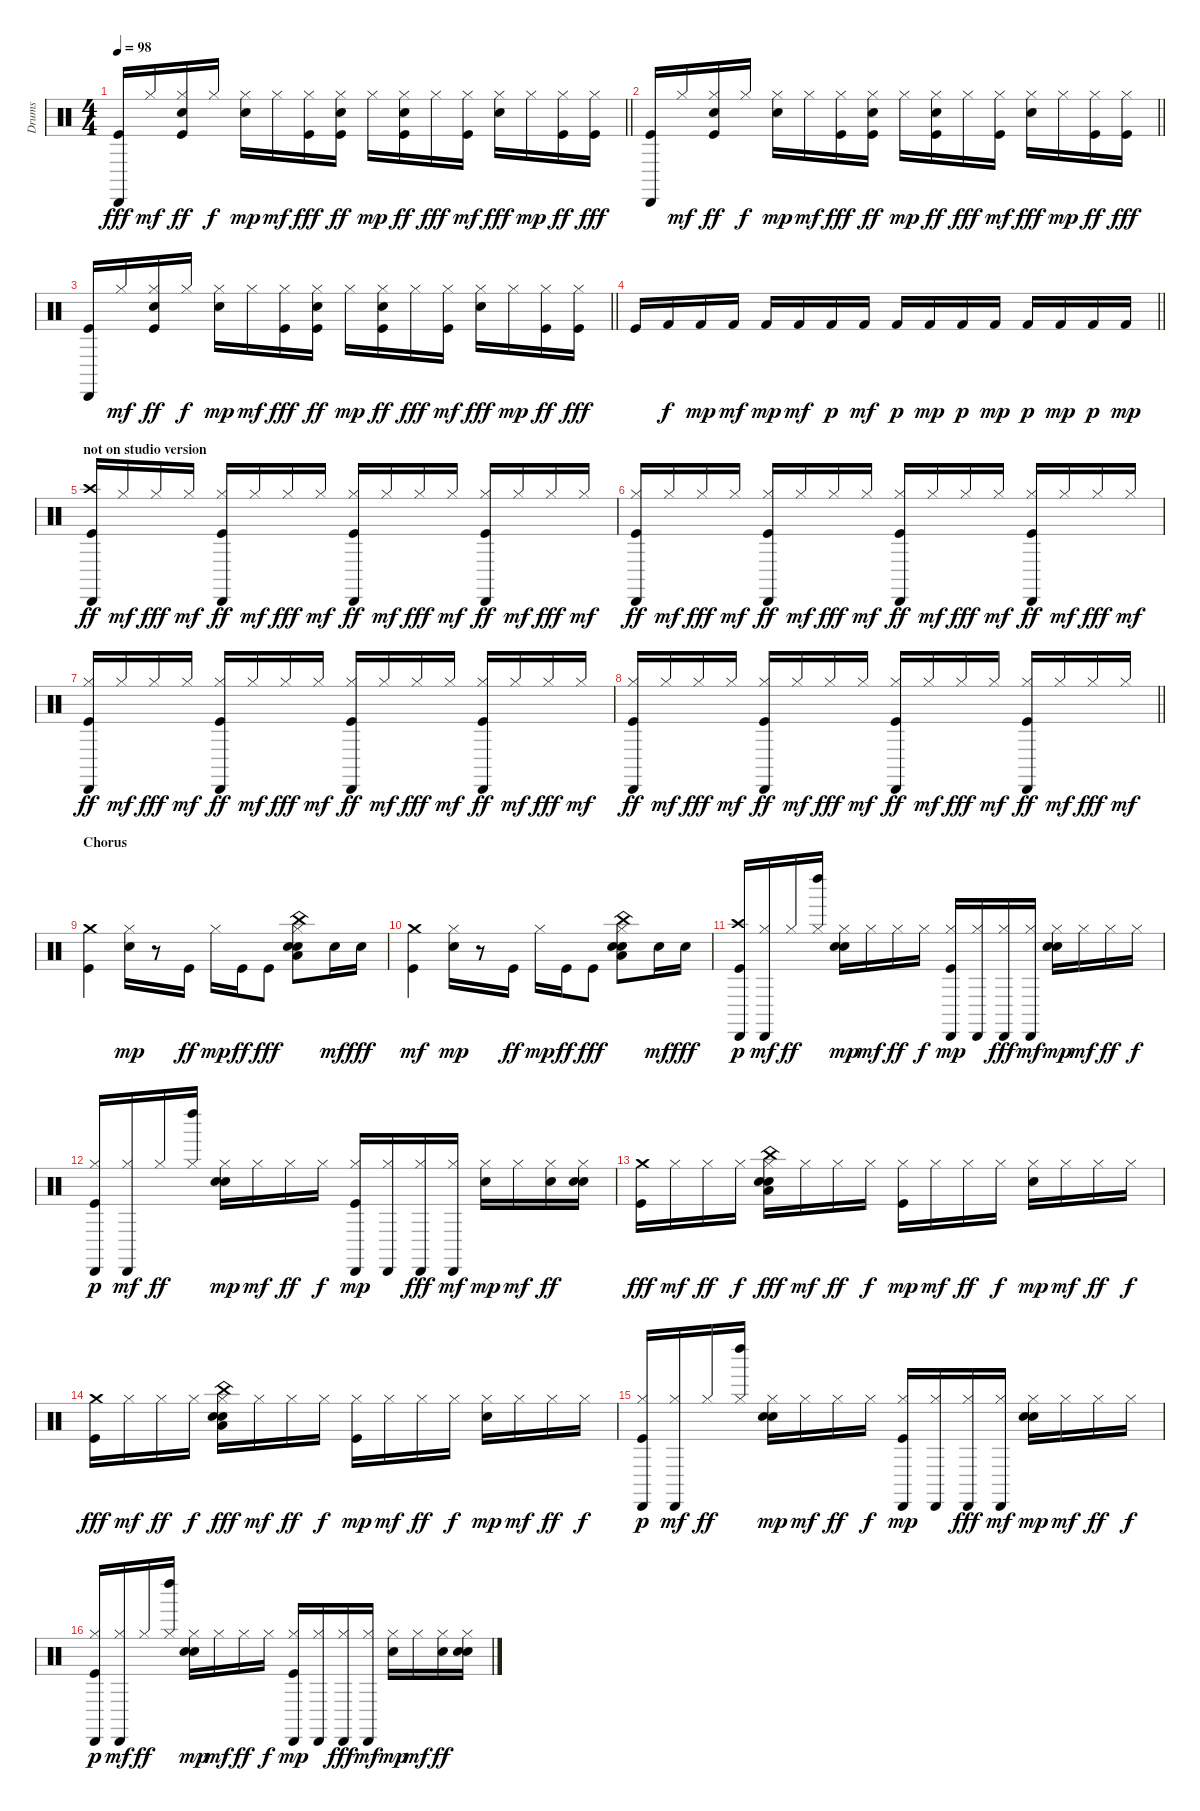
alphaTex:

\track ("Drums" "Drums") {instrument percussion}
\staff {score}
\articulation defaults
\ts (4 4)
\tempo 98
\clef neutral
\barLineRight lightlight
\ks c
("Cabasa (hit)" "Kick (hit)").16{dy fff} "Hi-Hat (closed)".16{dy mf} ("Kick (hit)" "Hi-Hat (closed)" "Hand Clap (hit)").16{dy ff} "Hi-Hat (closed)".16{dy f} ("Snare (hit) 2" "Hi-Hat (closed)").16{dy mp} "Hi-Hat (closed)".16{dy mf} ("Kick (hit)" "Hi-Hat (closed)").16{dy fff} ("Kick (hit)" "Hi-Hat (closed)" "Hand Clap (hit)").16{dy ff} "Hi-Hat (closed)".16{dy mp} ("Kick (hit)" "Hi-Hat (closed)" "Hand Clap (hit)").16{dy ff} "Hi-Hat (closed)".16{dy fff} ("Kick (hit)" "Hi-Hat (closed)").16{dy mf} ("Hi-Hat (closed)" "Snare (hit) 2").16{dy fff} "Hi-Hat (closed)".16{dy mp} ("Hi-Hat (closed)" "Kick (hit)").16{dy ff} ("Hi-Hat (closed)" "Kick (hit)").16{dy fff} |
\barLineRight lightlight
("Cabasa (hit)" "Kick (hit)").16 "Hi-Hat (closed)".16{dy mf} ("Kick (hit)" "Hi-Hat (closed)" "Hand Clap (hit)").16{dy ff} "Hi-Hat (closed)".16{dy f} ("Snare (hit) 2" "Hi-Hat (closed)").16{dy mp} "Hi-Hat (closed)".16{dy mf} ("Kick (hit)" "Hi-Hat (closed)").16{dy fff} ("Kick (hit)" "Hi-Hat (closed)" "Hand Clap (hit)").16{dy ff} "Hi-Hat (closed)".16{dy mp} ("Kick (hit)" "Hi-Hat (closed)" "Hand Clap (hit)").16{dy ff} "Hi-Hat (closed)".16{dy fff} ("Kick (hit)" "Hi-Hat (closed)").16{dy mf} ("Hi-Hat (closed)" "Snare (hit) 2").16{dy fff} "Hi-Hat (closed)".16{dy mp} ("Hi-Hat (closed)" "Kick (hit)").16{dy ff} ("Hi-Hat (closed)" "Kick (hit)").16{dy fff} |
\barLineRight lightlight
("Cabasa (hit)" "Kick (hit)").16 "Hi-Hat (closed)".16{dy mf} ("Kick (hit)" "Hi-Hat (closed)" "Hand Clap (hit)").16{dy ff} "Hi-Hat (closed)".16{dy f} ("Snare (hit) 2" "Hi-Hat (closed)").16{dy mp} "Hi-Hat (closed)".16{dy mf} ("Kick (hit)" "Hi-Hat (closed)").16{dy fff} ("Kick (hit)" "Hi-Hat (closed)" "Hand Clap (hit)").16{dy ff} "Hi-Hat (closed)".16{dy mp} ("Kick (hit)" "Hi-Hat (closed)" "Hand Clap (hit)").16{dy ff} "Hi-Hat (closed)".16{dy fff} ("Kick (hit)" "Hi-Hat (closed)").16{dy mf} ("Hi-Hat (closed)" "Snare (hit) 2").16{dy fff} "Hi-Hat (closed)".16{dy mp} ("Hi-Hat (closed)" "Kick (hit)").16{dy ff} ("Hi-Hat (closed)" "Kick (hit)").16{dy fff} |
\barLineRight lightlight "Kick (hit)".16 "Kick (hit) 2".16{dy f} "Kick (hit) 2".16{dy mp balance 2} "Kick (hit) 2".16{dy mf balance 15} "Kick (hit) 2".16{dy mp balance 2} "Kick (hit) 2".16{dy mf balance 15} "Kick (hit) 2".16{dy p balance 2} "Kick (hit) 2".16{dy mf balance 15} "Kick (hit) 2".16{dy p balance 2} "Kick (hit) 2".16{dy mp balance 15} "Kick (hit) 2".16{dy p balance 2} "Kick (hit) 2".16{dy mp balance 15} "Kick (hit) 2".16{dy p balance 2} "Kick (hit) 2".16{dy mp balance 15} "Kick (hit) 2".16{dy p balance 2} "Kick (hit) 2".16{dy mp balance 15}
|
\section ("" "not on studio version")
("Kick (hit)" "Crash high (hit)" "Cabasa (hit)").16{dy ff} "Hi-Hat (closed)".16{dy mf} "Hi-Hat (closed)".16{dy fff} "Hi-Hat (closed)".16{dy mf} ("Kick (hit)" "Hi-Hat (closed)" "Cabasa (hit)").16{dy ff} "Hi-Hat (closed)".16{dy mf} "Hi-Hat (closed)".16{dy fff} "Hi-Hat (closed)".16{dy mf} ("Kick (hit)" "Hi-Hat (closed)" "Cabasa (hit)").16{dy ff} "Hi-Hat (closed)".16{dy mf} "Hi-Hat (closed)".16{dy fff} "Hi-Hat (closed)".16{dy mf} ("Kick (hit)" "Hi-Hat (closed)" "Cabasa (hit)").16{dy ff} "Hi-Hat (closed)".16{dy mf} "Hi-Hat (closed)".16{dy fff} "Hi-Hat (closed)".16{dy mf} |
("Kick (hit)" "Hi-Hat (closed)" "Cabasa (hit)").16{dy ff} "Hi-Hat (closed)".16{dy mf} "Hi-Hat (closed)".16{dy fff} "Hi-Hat (closed)".16{dy mf} ("Kick (hit)" "Hi-Hat (closed)" "Cabasa (hit)").16{dy ff} "Hi-Hat (closed)".16{dy mf} "Hi-Hat (closed)".16{dy fff} "Hi-Hat (closed)".16{dy mf} ("Kick (hit)" "Hi-Hat (closed)" "Cabasa (hit)").16{dy ff} "Hi-Hat (closed)".16{dy mf} "Hi-Hat (closed)".16{dy fff} "Hi-Hat (closed)".16{dy mf} ("Kick (hit)" "Hi-Hat (closed)" "Cabasa (hit)").16{dy ff} "Hi-Hat (closed)".16{dy mf} "Hi-Hat (closed)".16{dy fff} "Hi-Hat (closed)".16{dy mf} |
("Kick (hit)" "Hi-Hat (closed)" "Cabasa (hit)").16{dy ff} "Hi-Hat (closed)".16{dy mf} "Hi-Hat (closed)".16{dy fff} "Hi-Hat (closed)".16{dy mf} ("Kick (hit)" "Hi-Hat (closed)" "Cabasa (hit)").16{dy ff} "Hi-Hat (closed)".16{dy mf} "Hi-Hat (closed)".16{dy fff} "Hi-Hat (closed)".16{dy mf} ("Kick (hit)" "Hi-Hat (closed)" "Cabasa (hit)").16{dy ff} "Hi-Hat (closed)".16{dy mf} "Hi-Hat (closed)".16{dy fff} "Hi-Hat (closed)".16{dy mf} ("Kick (hit)" "Hi-Hat (closed)" "Cabasa (hit)").16{dy ff} "Hi-Hat (closed)".16{dy mf} "Hi-Hat (closed)".16{dy fff} "Hi-Hat (closed)".16{dy mf} |
\barLineRight lightlight
("Kick (hit)" "Hi-Hat (closed)" "Cabasa (hit)").16{dy ff} "Hi-Hat (closed)".16{dy mf} "Hi-Hat (closed)".16{dy fff} "Hi-Hat (closed)".16{dy mf} ("Kick (hit)" "Hi-Hat (closed)" "Cabasa (hit)").16{dy ff} "Hi-Hat (closed)".16{dy mf} "Hi-Hat (closed)".16{dy fff} "Hi-Hat (closed)".16{dy mf} ("Kick (hit)" "Hi-Hat (closed)" "Cabasa (hit)").16{dy ff} "Hi-Hat (closed)".16{dy mf} "Hi-Hat (closed)".16{dy fff} "Hi-Hat (closed)".16{dy mf} ("Kick (hit)" "Hi-Hat (closed)" "Cabasa (hit)").16{dy ff} "Hi-Hat (closed)".16{dy mf} "Hi-Hat (closed)".16{dy fff} "Hi-Hat (closed)".16{dy mf} |
\section ("" "Chorus")
("Kick (hit)" "Crash medium (hit)").4 ("Snare (hit) 2" "Hi-Hat (closed)").16{dy mp} r.8 "Kick (hit)".16{dy ff} "Hi-Hat (closed)".16{dy mp} "Kick (hit)".16{dy ff} "Kick (hit)".8{dy fff} ("Hi-Hat (closed)" "Snare (hit) 2" "Low Floor Tom (hit)" "China (hit)" "Hand Clap (hit)").8 "Snare (hit) 2".16{dy mf} "Snare (hit) 2".16{dy fff} |
("Kick (hit)" "Crash medium (hit)").4{dy mf} ("Snare (hit) 2" "Hi-Hat (closed)").16{dy mp} r.8 "Kick (hit)".16{dy ff} "Hi-Hat (closed)".16{dy mp} "Kick (hit)".16{dy ff} "Kick (hit)".8{dy fff} ("Hi-Hat (closed)" "Snare (hit) 2" "Low Floor Tom (hit)" "China (hit)" "Hand Clap (hit)").8 "Snare (hit) 2".16{dy mf} "Snare (hit) 2".16{dy fff} |
("Kick (hit)" "Crash high (hit)" "Cabasa (hit)").16{dy p} ("Hi-Hat (closed)" "Cabasa (hit)").16{dy mf} "Hi-Hat (closed)".16{dy ff} ("Hi-Hat (closed)" "Left Maraca (hit)").16 ("Snare (hit) 2" "Hi-Hat (closed)" "Hand Clap (hit)").16{dy mp} "Hi-Hat (closed)".16{dy mf} "Hi-Hat (closed)".16{dy ff} "Hi-Hat (closed)".16{dy f} ("Kick (hit)" "Hi-Hat (closed)" "Cabasa (hit)").16{dy mp} ("Cabasa (hit)" "Hi-Hat (closed)").16 ("Hi-Hat (closed)" "Cabasa (hit)").16{dy fff} ("Hi-Hat (closed)" "Cabasa (hit)").16{dy mf} ("Snare (hit) 2" "Hi-Hat (closed)" "Hand Clap (hit)").16{dy mp} "Hi-Hat (closed)".16{dy mf} "Hi-Hat (closed)".16{dy ff} "Hi-Hat (closed)".16{dy f} |
("Kick (hit)" "Hi-Hat (closed)" "Cabasa (hit)").16{dy p} ("Hi-Hat (closed)" "Cabasa (hit)").16{dy mf} "Hi-Hat (closed)".16{dy ff} ("Hi-Hat (closed)" "Left Maraca (hit)").16 ("Snare (hit) 2" "Hi-Hat (closed)" "Hand Clap (hit)").16{dy mp} "Hi-Hat (closed)".16{dy mf} "Hi-Hat (closed)".16{dy ff} "Hi-Hat (closed)".16{dy f} ("Kick (hit)" "Hi-Hat (closed)" "Cabasa (hit)").16{dy mp} ("Cabasa (hit)" "Hi-Hat (closed)").16 ("Hi-Hat (closed)" "Cabasa (hit)").16{dy fff} ("Hi-Hat (closed)" "Cabasa (hit)").16{dy mf} ("Snare (hit) 2" "Hi-Hat (closed)").16{dy mp} "Hi-Hat (closed)".16{dy mf} ("Snare (hit) 2" "Hi-Hat (closed)").16{dy ff} ("Snare (hit) 2" "Hi-Hat (closed)" "Hand Clap (hit)").16 |
("Crash medium (hit)" "Kick (hit)").16{dy fff} "Hi-Hat (closed)".16{dy mf} "Hi-Hat (closed)".16{dy ff} "Hi-Hat (closed)".16{dy f} ("Snare (hit) 2" "Hi-Hat (closed)" "Low Floor Tom (hit)" "China (hit)" "Hand Clap (hit)").16{dy fff} "Hi-Hat (closed)".16{dy mf} "Hi-Hat (closed)".16{dy ff} "Hi-Hat (closed)".16{dy f} ("Kick (hit)" "Hi-Hat (closed)").16{dy mp} "Hi-Hat (closed)".16{dy mf} "Hi-Hat (closed)".16{dy ff} "Hi-Hat (closed)".16{dy f} ("Snare (hit) 2" "Hi-Hat (closed)").16{dy mp} "Hi-Hat (closed)".16{dy mf} "Hi-Hat (closed)".16{dy ff} "Hi-Hat (closed)".16{dy f} |
("Crash medium (hit)" "Kick (hit)").16{dy fff} "Hi-Hat (closed)".16{dy mf} "Hi-Hat (closed)".16{dy ff} "Hi-Hat (closed)".16{dy f} ("Snare (hit) 2" "Hi-Hat (closed)" "Low Floor Tom (hit)" "China (hit)" "Hand Clap (hit)").16{dy fff} "Hi-Hat (closed)".16{dy mf} "Hi-Hat (closed)".16{dy ff} "Hi-Hat (closed)".16{dy f} ("Kick (hit)" "Hi-Hat (closed)").16{dy mp} "Hi-Hat (closed)".16{dy mf} "Hi-Hat (closed)".16{dy ff} "Hi-Hat (closed)".16{dy f} ("Snare (hit) 2" "Hi-Hat (closed)").16{dy mp} "Hi-Hat (closed)".16{dy mf} "Hi-Hat (closed)".16{dy ff} "Hi-Hat (closed)".16{dy f} |
("Kick (hit)" "Hi-Hat (closed)" "Cabasa (hit)").16{dy p} ("Hi-Hat (closed)" "Cabasa (hit)").16{dy mf} "Hi-Hat (closed)".16{dy ff} ("Hi-Hat (closed)" "Left Maraca (hit)").16 ("Snare (hit) 2" "Hi-Hat (closed)" "Hand Clap (hit)").16{dy mp} "Hi-Hat (closed)".16{dy mf} "Hi-Hat (closed)".16{dy ff} "Hi-Hat (closed)".16{dy f} ("Kick (hit)" "Hi-Hat (closed)" "Cabasa (hit)").16{dy mp} ("Cabasa (hit)" "Hi-Hat (closed)").16 ("Hi-Hat (closed)" "Cabasa (hit)").16{dy fff} ("Hi-Hat (closed)" "Cabasa (hit)").16{dy mf} ("Snare (hit) 2" "Hi-Hat (closed)" "Hand Clap (hit)").16{dy mp} "Hi-Hat (closed)".16{dy mf} "Hi-Hat (closed)".16{dy ff} "Hi-Hat (closed)".16{dy f} |
("Kick (hit)" "Hi-Hat (closed)" "Cabasa (hit)").16{dy p} ("Hi-Hat (closed)" "Cabasa (hit)").16{dy mf} "Hi-Hat (closed)".16{dy ff} ("Hi-Hat (closed)" "Left Maraca (hit)").16 ("Snare (hit) 2" "Hi-Hat (closed)" "Hand Clap (hit)").16{dy mp} "Hi-Hat (closed)".16{dy mf} "Hi-Hat (closed)".16{dy ff} "Hi-Hat (closed)".16{dy f} ("Kick (hit)" "Hi-Hat (closed)" "Cabasa (hit)").16{dy mp} ("Cabasa (hit)" "Hi-Hat (closed)").16 ("Hi-Hat (closed)" "Cabasa (hit)").16{dy fff} ("Hi-Hat (closed)" "Cabasa (hit)").16{dy mf} ("Snare (hit) 2" "Hi-Hat (closed)").16{dy mp} "Hi-Hat (closed)".16{dy mf} ("Snare (hit) 2" "Hi-Hat (closed)").16{dy ff} ("Snare (hit) 2" "Hi-Hat (closed)" "Hand Clap (hit)").16
